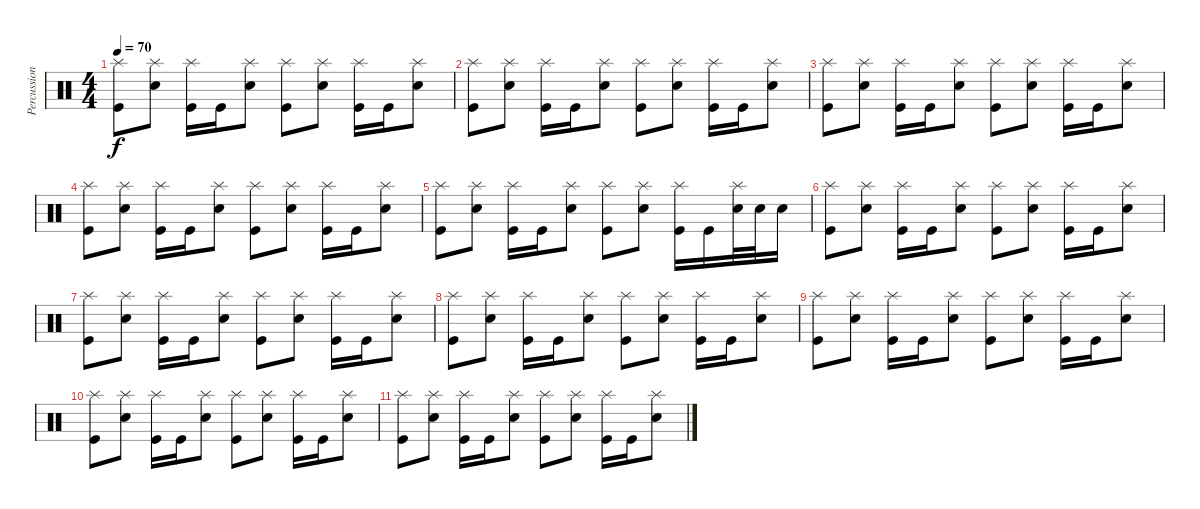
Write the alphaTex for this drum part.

\track ("Percussions" "Percussion") {instrument percussion}
\staff {score}
\articulation defaults
\ts (4 4)
\tempo 70
\clef neutral
\ks c
("Splash (hit)" "Kick (hit)").8{dy f} ("Splash (hit)" "Electric Snare (hit)").8 ("Splash (hit)" "Kick (hit)").16 "Kick (hit)".16 ("Splash (hit)" "Electric Snare (hit)").8 ("Splash (hit)" "Kick (hit)").8 ("Splash (hit)" "Electric Snare (hit)").8 ("Splash (hit)" "Kick (hit)").16 "Kick (hit)".16 ("Splash (hit)" "Electric Snare (hit)").8 |
("Splash (hit)" "Kick (hit)").8 ("Splash (hit)" "Electric Snare (hit)").8 ("Splash (hit)" "Kick (hit)").16 "Kick (hit)".16 ("Splash (hit)" "Electric Snare (hit)").8 ("Splash (hit)" "Kick (hit)").8 ("Splash (hit)" "Electric Snare (hit)").8 ("Splash (hit)" "Kick (hit)").16 "Kick (hit)".16 ("Splash (hit)" "Electric Snare (hit)").8 |
("Splash (hit)" "Kick (hit)").8 ("Splash (hit)" "Electric Snare (hit)").8 ("Splash (hit)" "Kick (hit)").16 "Kick (hit)".16 ("Splash (hit)" "Electric Snare (hit)").8 ("Splash (hit)" "Kick (hit)").8 ("Splash (hit)" "Electric Snare (hit)").8 ("Splash (hit)" "Kick (hit)").16 "Kick (hit)".16 ("Splash (hit)" "Electric Snare (hit)").8 |
("Splash (hit)" "Kick (hit)").8 ("Splash (hit)" "Electric Snare (hit)").8 ("Splash (hit)" "Kick (hit)").16 "Kick (hit)".16 ("Splash (hit)" "Electric Snare (hit)").8 ("Splash (hit)" "Kick (hit)").8 ("Splash (hit)" "Electric Snare (hit)").8 ("Splash (hit)" "Kick (hit)").16 "Kick (hit)".16 ("Splash (hit)" "Electric Snare (hit)").8 |
("Splash (hit)" "Kick (hit)").8 ("Splash (hit)" "Electric Snare (hit)").8 ("Splash (hit)" "Kick (hit)").16 "Kick (hit)".16 ("Splash (hit)" "Electric Snare (hit)").8 ("Splash (hit)" "Kick (hit)").8 ("Splash (hit)" "Electric Snare (hit)").8 ("Splash (hit)" "Kick (hit)").16 "Kick (hit)".16 ("Splash (hit)" "Electric Snare (hit)").32 "Electric Snare (hit)".32 "Electric Snare (hit)".16 |
("Splash (hit)" "Kick (hit)").8 ("Splash (hit)" "Electric Snare (hit)").8 ("Splash (hit)" "Kick (hit)").16 "Kick (hit)".16 ("Splash (hit)" "Electric Snare (hit)").8 ("Splash (hit)" "Kick (hit)").8 ("Splash (hit)" "Electric Snare (hit)").8 ("Splash (hit)" "Kick (hit)").16 "Kick (hit)".16 ("Splash (hit)" "Electric Snare (hit)").8 |
("Splash (hit)" "Kick (hit)").8 ("Splash (hit)" "Electric Snare (hit)").8 ("Splash (hit)" "Kick (hit)").16 "Kick (hit)".16 ("Splash (hit)" "Electric Snare (hit)").8 ("Splash (hit)" "Kick (hit)").8 ("Splash (hit)" "Electric Snare (hit)").8 ("Splash (hit)" "Kick (hit)").16 "Kick (hit)".16 ("Splash (hit)" "Electric Snare (hit)").8 |
("Splash (hit)" "Kick (hit)").8 ("Splash (hit)" "Electric Snare (hit)").8 ("Splash (hit)" "Kick (hit)").16 "Kick (hit)".16 ("Splash (hit)" "Electric Snare (hit)").8 ("Splash (hit)" "Kick (hit)").8 ("Splash (hit)" "Electric Snare (hit)").8 ("Splash (hit)" "Kick (hit)").16 "Kick (hit)".16 ("Splash (hit)" "Electric Snare (hit)").8 |
("Splash (hit)" "Kick (hit)").8 ("Splash (hit)" "Electric Snare (hit)").8 ("Splash (hit)" "Kick (hit)").16 "Kick (hit)".16 ("Splash (hit)" "Electric Snare (hit)").8 ("Splash (hit)" "Kick (hit)").8 ("Splash (hit)" "Electric Snare (hit)").8 ("Splash (hit)" "Kick (hit)").16 "Kick (hit)".16 ("Splash (hit)" "Electric Snare (hit)").8 |
("Splash (hit)" "Kick (hit)").8 ("Splash (hit)" "Electric Snare (hit)").8 ("Splash (hit)" "Kick (hit)").16 "Kick (hit)".16 ("Splash (hit)" "Electric Snare (hit)").8 ("Splash (hit)" "Kick (hit)").8 ("Splash (hit)" "Electric Snare (hit)").8 ("Splash (hit)" "Kick (hit)").16 "Kick (hit)".16 ("Splash (hit)" "Electric Snare (hit)").8 |
("Splash (hit)" "Kick (hit)").8 ("Splash (hit)" "Electric Snare (hit)").8 ("Splash (hit)" "Kick (hit)").16 "Kick (hit)".16 ("Splash (hit)" "Electric Snare (hit)").8 ("Splash (hit)" "Kick (hit)").8 ("Splash (hit)" "Electric Snare (hit)").8 ("Splash (hit)" "Kick (hit)").16 "Kick (hit)".16 ("Splash (hit)" "Electric Snare (hit)").8
